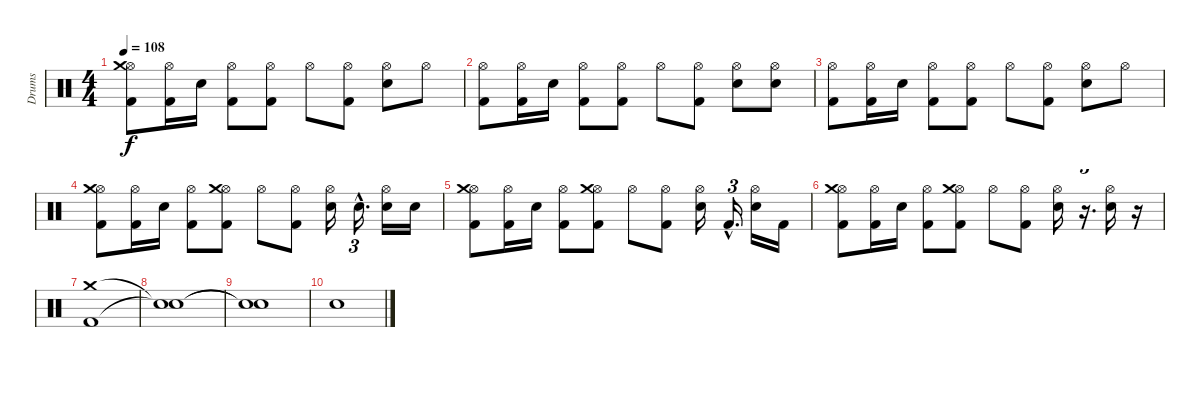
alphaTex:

\track ("Drums" "Drums") {instrument percussion}
\staff {score}
\articulation defaults
\ts (4 4)
\tempo 108
\clef neutral
\ks c
("Hi-Hat (open)" "Kick (hit) 2" "Crash medium (hit)").8{dy f} ("Hi-Hat (open)" "Kick (hit) 2").16 "Electric Snare (hit)".16 ("Hi-Hat (open)" "Kick (hit) 2").8 ("Hi-Hat (open)" "Kick (hit) 2").8 "Hi-Hat (open)".8 ("Hi-Hat (open)" "Kick (hit) 2").8 ("Hi-Hat (open)" "Electric Snare (hit)").8 "Hi-Hat (open)".8 |
("Hi-Hat (open)" "Kick (hit) 2").8 ("Hi-Hat (open)" "Kick (hit) 2").16 "Electric Snare (hit)".16 ("Hi-Hat (open)" "Kick (hit) 2").8 ("Hi-Hat (open)" "Kick (hit) 2").8 "Hi-Hat (open)".8 ("Hi-Hat (open)" "Kick (hit) 2").8 ("Hi-Hat (open)" "Electric Snare (hit)").8 ("Hi-Hat (open)" "Electric Snare (hit)").8 |
("Hi-Hat (open)" "Kick (hit) 2").8 ("Hi-Hat (open)" "Kick (hit) 2").16 "Electric Snare (hit)".16 ("Hi-Hat (open)" "Kick (hit) 2").8 ("Hi-Hat (open)" "Kick (hit) 2").8 "Hi-Hat (open)".8 ("Hi-Hat (open)" "Kick (hit) 2").8 ("Hi-Hat (open)" "Electric Snare (hit)").8 "Hi-Hat (open)".8 |
("Hi-Hat (open)" "Kick (hit) 2" "Crash medium (hit)").8 ("Hi-Hat (open)" "Kick (hit) 2").16 "Electric Snare (hit)".16 ("Hi-Hat (open)" "Kick (hit) 2").8 ("Hi-Hat (open)" "Kick (hit) 2" "Crash medium (hit)").8 "Hi-Hat (open)".8 ("Hi-Hat (open)" "Kick (hit) 2").8 ("Hi-Hat (open)" "Electric Snare (hit)").16 "Electric Snare (hit)"{hac}.16{d tu (3 2)} ("Hi-Hat (open)" "Electric Snare (hit)").16 "Electric Snare (hit)".16 |
("Hi-Hat (open)" "Kick (hit) 2" "Crash medium (hit)").8 ("Hi-Hat (open)" "Kick (hit) 2").16 "Electric Snare (hit)".16 ("Hi-Hat (open)" "Kick (hit) 2").8 ("Hi-Hat (open)" "Kick (hit) 2" "Crash medium (hit)").8 "Hi-Hat (open)".8 ("Hi-Hat (open)" "Kick (hit) 2").8 ("Hi-Hat (open)" "Electric Snare (hit)").16 "Kick (hit) 2"{hac}.16{d tu (3 2)} ("Hi-Hat (open)" "Electric Snare (hit)").16 "Kick (hit) 2".16 |
("Hi-Hat (open)" "Kick (hit) 2" "Crash medium (hit)").8 ("Hi-Hat (open)" "Kick (hit) 2").16 "Electric Snare (hit)".16 ("Hi-Hat (open)" "Kick (hit) 2").8 ("Hi-Hat (open)" "Kick (hit) 2" "Crash medium (hit)").8 "Hi-Hat (open)".8 ("Hi-Hat (open)" "Kick (hit) 2").8 ("Hi-Hat (open)" "Electric Snare (hit)").16 r.16{d tu (3 2)} ("Hi-Hat (open)" "Electric Snare (hit)").16 r.16 |
("Kick (hit) 2" "Crash medium (hit)").1 |
("Snare (hit)"{t} "Snare (hit)"{t}).1 |
("Snare (hit)"{t} "Snare (hit)"{t}).1 |
"Electric Snare (hit)".1
